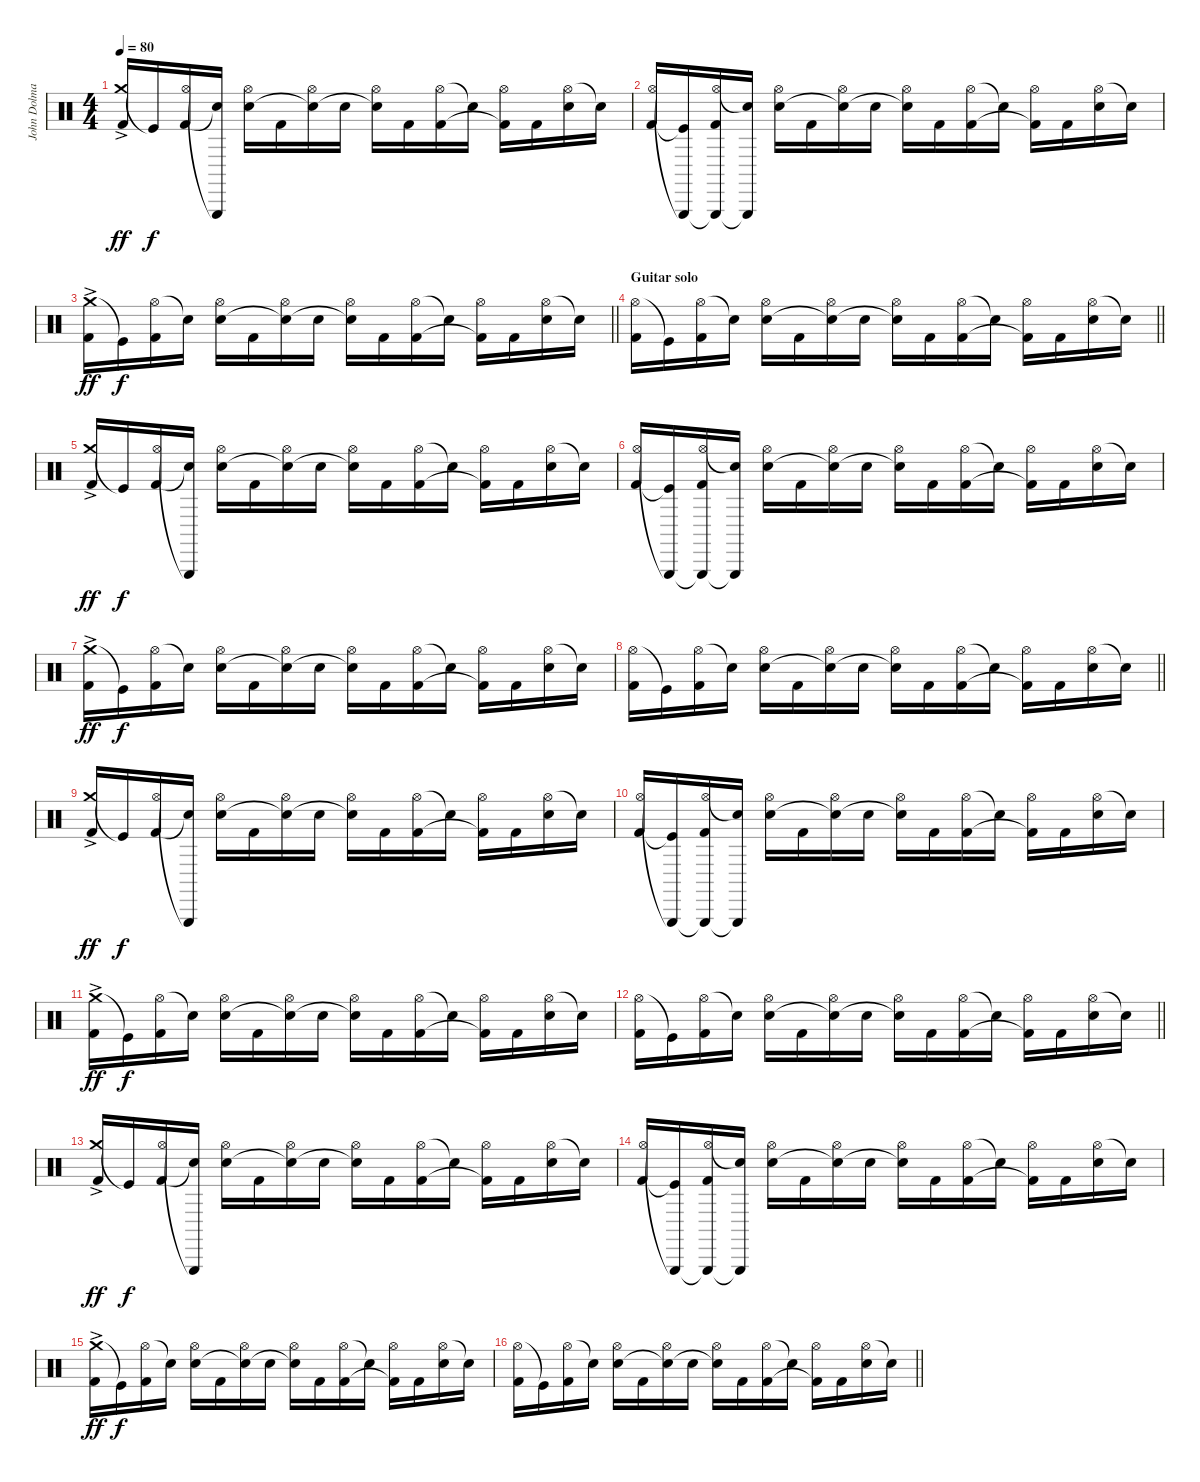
\track ("John Dolmayan (drums)" "John Dolma") {instrument percussion}
\staff
\articulation defaults
\ts (4 4)
\tempo 80
\clef neutral
\ks c
("Crash medium (hit)"{ac} "Kick (hit) 2").16{dy ff} "Kick (hit)"{t}.16{dy f} ("Hi-Hat (open)" "Kick (hit) 2").16 ("Triangle (hit)"{t} "Snare (hit)"{t}).16 ("Hi-Hat (open)" "Electric Snare (hit)").16 "Kick (hit) 2".16 ("Hi-Hat (open)" "Snare (hit)"{t}).16 "Electric Snare (hit)".16 ("Hi-Hat (open)" "Snare (hit)"{t}).16 "Kick (hit) 2".16 ("Hi-Hat (open)" "Kick (hit) 2").16 "Snare (hit)"{t}.16 ("Hi-Hat (open)" "Kick (hit) 2"{t}).16 "Kick (hit) 2".16 ("Hi-Hat (open)" "Electric Snare (hit)").16 "Snare (hit)"{t}.16 |
("Hi-Hat (open)" "Kick (hit) 2").16 ("Triangle (hit)"{t} "Kick (hit)"{t}).16 ("Triangle (hit)"{t} "Hi-Hat (open)" "Kick (hit) 2").16 ("Triangle (hit)"{t} "Snare (hit)"{t}).16 ("Hi-Hat (open)" "Electric Snare (hit)").16 "Kick (hit) 2".16 ("Hi-Hat (open)" "Snare (hit)"{t}).16 "Electric Snare (hit)".16 ("Hi-Hat (open)" "Snare (hit)"{t}).16 "Kick (hit) 2".16 ("Hi-Hat (open)" "Kick (hit) 2").16 "Snare (hit)"{t}.16 ("Hi-Hat (open)" "Kick (hit) 2"{t}).16 "Kick (hit) 2".16 ("Hi-Hat (open)" "Electric Snare (hit)").16 "Snare (hit)"{t}.16 |
\barLineRight lightlight
("Crash medium (hit)"{ac} "Kick (hit) 2").16{dy ff} "Kick (hit)"{t}.16{dy f} ("Hi-Hat (open)" "Kick (hit) 2").16 "Snare (hit)"{t}.16 ("Hi-Hat (open)" "Electric Snare (hit)").16 "Kick (hit) 2".16 ("Hi-Hat (open)" "Snare (hit)"{t}).16 "Electric Snare (hit)".16 ("Hi-Hat (open)" "Snare (hit)"{t}).16 "Kick (hit) 2".16 ("Hi-Hat (open)" "Kick (hit) 2").16 "Snare (hit)"{t}.16 ("Hi-Hat (open)" "Kick (hit) 2"{t}).16 "Kick (hit) 2".16 ("Hi-Hat (open)" "Electric Snare (hit)").16 "Snare (hit)"{t}.16 |
\section ("" "Guitar solo")
\barLineRight lightlight
("Hi-Hat (open)" "Kick (hit) 2").16 "Kick (hit)"{t}.16 ("Hi-Hat (open)" "Kick (hit) 2").16 "Snare (hit)"{t}.16 ("Hi-Hat (open)" "Electric Snare (hit)").16 "Kick (hit) 2".16 ("Hi-Hat (open)" "Snare (hit)"{t}).16 "Electric Snare (hit)".16 ("Hi-Hat (open)" "Snare (hit)"{t}).16 "Kick (hit) 2".16 ("Hi-Hat (open)" "Kick (hit) 2").16 "Snare (hit)"{t}.16 ("Hi-Hat (open)" "Kick (hit) 2"{t}).16 "Kick (hit) 2".16 ("Hi-Hat (open)" "Electric Snare (hit)").16 "Snare (hit)"{t}.16 |
("Crash medium (hit)"{ac} "Kick (hit) 2").16{dy ff} "Kick (hit)"{t}.16{dy f} ("Hi-Hat (open)" "Kick (hit) 2").16 ("Triangle (hit)"{t} "Snare (hit)"{t}).16 ("Hi-Hat (open)" "Electric Snare (hit)").16 "Kick (hit) 2".16 ("Hi-Hat (open)" "Snare (hit)"{t}).16 "Electric Snare (hit)".16 ("Hi-Hat (open)" "Snare (hit)"{t}).16 "Kick (hit) 2".16 ("Hi-Hat (open)" "Kick (hit) 2").16 "Snare (hit)"{t}.16 ("Hi-Hat (open)" "Kick (hit) 2"{t}).16 "Kick (hit) 2".16 ("Hi-Hat (open)" "Electric Snare (hit)").16 "Snare (hit)"{t}.16 |
("Hi-Hat (open)" "Kick (hit) 2").16 ("Triangle (hit)"{t} "Kick (hit)"{t}).16 ("Triangle (hit)"{t} "Hi-Hat (open)" "Kick (hit) 2").16 ("Triangle (hit)"{t} "Snare (hit)"{t}).16 ("Hi-Hat (open)" "Electric Snare (hit)").16 "Kick (hit) 2".16 ("Hi-Hat (open)" "Snare (hit)"{t}).16 "Electric Snare (hit)".16 ("Hi-Hat (open)" "Snare (hit)"{t}).16 "Kick (hit) 2".16 ("Hi-Hat (open)" "Kick (hit) 2").16 "Snare (hit)"{t}.16 ("Hi-Hat (open)" "Kick (hit) 2"{t}).16 "Kick (hit) 2".16 ("Hi-Hat (open)" "Electric Snare (hit)").16 "Snare (hit)"{t}.16 |
("Crash medium (hit)"{ac} "Kick (hit) 2").16{dy ff} "Kick (hit)"{t}.16{dy f} ("Hi-Hat (open)" "Kick (hit) 2").16 "Snare (hit)"{t}.16 ("Hi-Hat (open)" "Electric Snare (hit)").16 "Kick (hit) 2".16 ("Hi-Hat (open)" "Snare (hit)"{t}).16 "Electric Snare (hit)".16 ("Hi-Hat (open)" "Snare (hit)"{t}).16 "Kick (hit) 2".16 ("Hi-Hat (open)" "Kick (hit) 2").16 "Snare (hit)"{t}.16 ("Hi-Hat (open)" "Kick (hit) 2"{t}).16 "Kick (hit) 2".16 ("Hi-Hat (open)" "Electric Snare (hit)").16 "Snare (hit)"{t}.16 |
\barLineRight lightlight
("Hi-Hat (open)" "Kick (hit) 2").16 "Kick (hit)"{t}.16 ("Hi-Hat (open)" "Kick (hit) 2").16 "Snare (hit)"{t}.16 ("Hi-Hat (open)" "Electric Snare (hit)").16 "Kick (hit) 2".16 ("Hi-Hat (open)" "Snare (hit)"{t}).16 "Electric Snare (hit)".16 ("Hi-Hat (open)" "Snare (hit)"{t}).16 "Kick (hit) 2".16 ("Hi-Hat (open)" "Kick (hit) 2").16 "Snare (hit)"{t}.16 ("Hi-Hat (open)" "Kick (hit) 2"{t}).16 "Kick (hit) 2".16 ("Hi-Hat (open)" "Electric Snare (hit)").16 "Snare (hit)"{t}.16 |
("Crash medium (hit)"{ac} "Kick (hit) 2").16{dy ff} "Kick (hit)"{t}.16{dy f} ("Hi-Hat (open)" "Kick (hit) 2").16 ("Triangle (hit)"{t} "Snare (hit)"{t}).16 ("Hi-Hat (open)" "Electric Snare (hit)").16 "Kick (hit) 2".16 ("Hi-Hat (open)" "Snare (hit)"{t}).16 "Electric Snare (hit)".16 ("Hi-Hat (open)" "Snare (hit)"{t}).16 "Kick (hit) 2".16 ("Hi-Hat (open)" "Kick (hit) 2").16 "Snare (hit)"{t}.16 ("Hi-Hat (open)" "Kick (hit) 2"{t}).16 "Kick (hit) 2".16 ("Hi-Hat (open)" "Electric Snare (hit)").16 "Snare (hit)"{t}.16 |
("Hi-Hat (open)" "Kick (hit) 2").16 ("Triangle (hit)"{t} "Kick (hit)"{t}).16 ("Triangle (hit)"{t} "Hi-Hat (open)" "Kick (hit) 2").16 ("Triangle (hit)"{t} "Snare (hit)"{t}).16 ("Hi-Hat (open)" "Electric Snare (hit)").16 "Kick (hit) 2".16 ("Hi-Hat (open)" "Snare (hit)"{t}).16 "Electric Snare (hit)".16 ("Hi-Hat (open)" "Snare (hit)"{t}).16 "Kick (hit) 2".16 ("Hi-Hat (open)" "Kick (hit) 2").16 "Snare (hit)"{t}.16 ("Hi-Hat (open)" "Kick (hit) 2"{t}).16 "Kick (hit) 2".16 ("Hi-Hat (open)" "Electric Snare (hit)").16 "Snare (hit)"{t}.16 |
("Crash medium (hit)"{ac} "Kick (hit) 2").16{dy ff} "Kick (hit)"{t}.16{dy f} ("Hi-Hat (open)" "Kick (hit) 2").16 "Snare (hit)"{t}.16 ("Hi-Hat (open)" "Electric Snare (hit)").16 "Kick (hit) 2".16 ("Hi-Hat (open)" "Snare (hit)"{t}).16 "Electric Snare (hit)".16 ("Hi-Hat (open)" "Snare (hit)"{t}).16 "Kick (hit) 2".16 ("Hi-Hat (open)" "Kick (hit) 2").16 "Snare (hit)"{t}.16 ("Hi-Hat (open)" "Kick (hit) 2"{t}).16 "Kick (hit) 2".16 ("Hi-Hat (open)" "Electric Snare (hit)").16 "Snare (hit)"{t}.16 |
\barLineRight lightlight
("Hi-Hat (open)" "Kick (hit) 2").16 "Kick (hit)"{t}.16 ("Hi-Hat (open)" "Kick (hit) 2").16 "Snare (hit)"{t}.16 ("Hi-Hat (open)" "Electric Snare (hit)").16 "Kick (hit) 2".16 ("Hi-Hat (open)" "Snare (hit)"{t}).16 "Electric Snare (hit)".16 ("Hi-Hat (open)" "Snare (hit)"{t}).16 "Kick (hit) 2".16 ("Hi-Hat (open)" "Kick (hit) 2").16 "Snare (hit)"{t}.16 ("Hi-Hat (open)" "Kick (hit) 2"{t}).16 "Kick (hit) 2".16 ("Hi-Hat (open)" "Electric Snare (hit)").16 "Snare (hit)"{t}.16 |
("Crash medium (hit)"{ac} "Kick (hit) 2").16{dy ff} "Kick (hit)"{t}.16{dy f} ("Hi-Hat (open)" "Kick (hit) 2").16 ("Triangle (hit)"{t} "Snare (hit)"{t}).16 ("Hi-Hat (open)" "Electric Snare (hit)").16 "Kick (hit) 2".16 ("Hi-Hat (open)" "Snare (hit)"{t}).16 "Electric Snare (hit)".16 ("Hi-Hat (open)" "Snare (hit)"{t}).16 "Kick (hit) 2".16 ("Hi-Hat (open)" "Kick (hit) 2").16 "Snare (hit)"{t}.16 ("Hi-Hat (open)" "Kick (hit) 2"{t}).16 "Kick (hit) 2".16 ("Hi-Hat (open)" "Electric Snare (hit)").16 "Snare (hit)"{t}.16 |
("Hi-Hat (open)" "Kick (hit) 2").16 ("Triangle (hit)"{t} "Kick (hit)"{t}).16 ("Triangle (hit)"{t} "Hi-Hat (open)" "Kick (hit) 2").16 ("Triangle (hit)"{t} "Snare (hit)"{t}).16 ("Hi-Hat (open)" "Electric Snare (hit)").16 "Kick (hit) 2".16 ("Hi-Hat (open)" "Snare (hit)"{t}).16 "Electric Snare (hit)".16 ("Hi-Hat (open)" "Snare (hit)"{t}).16 "Kick (hit) 2".16 ("Hi-Hat (open)" "Kick (hit) 2").16 "Snare (hit)"{t}.16 ("Hi-Hat (open)" "Kick (hit) 2"{t}).16 "Kick (hit) 2".16 ("Hi-Hat (open)" "Electric Snare (hit)").16 "Snare (hit)"{t}.16 |
("Crash medium (hit)"{ac} "Kick (hit) 2").16{dy ff} "Kick (hit)"{t}.16{dy f} ("Hi-Hat (open)" "Kick (hit) 2").16 "Snare (hit)"{t}.16 ("Hi-Hat (open)" "Electric Snare (hit)").16 "Kick (hit) 2".16 ("Hi-Hat (open)" "Snare (hit)"{t}).16 "Electric Snare (hit)".16 ("Hi-Hat (open)" "Snare (hit)"{t}).16 "Kick (hit) 2".16 ("Hi-Hat (open)" "Kick (hit) 2").16 "Snare (hit)"{t}.16 ("Hi-Hat (open)" "Kick (hit) 2"{t}).16 "Kick (hit) 2".16 ("Hi-Hat (open)" "Electric Snare (hit)").16 "Snare (hit)"{t}.16 |
\barLineRight lightlight
("Hi-Hat (open)" "Kick (hit) 2").16 "Kick (hit)"{t}.16 ("Hi-Hat (open)" "Kick (hit) 2").16 "Snare (hit)"{t}.16 ("Hi-Hat (open)" "Electric Snare (hit)").16 "Kick (hit) 2".16 ("Hi-Hat (open)" "Snare (hit)"{t}).16 "Electric Snare (hit)".16 ("Hi-Hat (open)" "Snare (hit)"{t}).16 "Kick (hit) 2".16 ("Hi-Hat (open)" "Kick (hit) 2").16 "Snare (hit)"{t}.16 ("Hi-Hat (open)" "Kick (hit) 2"{t}).16 "Kick (hit) 2".16 ("Hi-Hat (open)" "Electric Snare (hit)").16 "Snare (hit)"{t}.16
